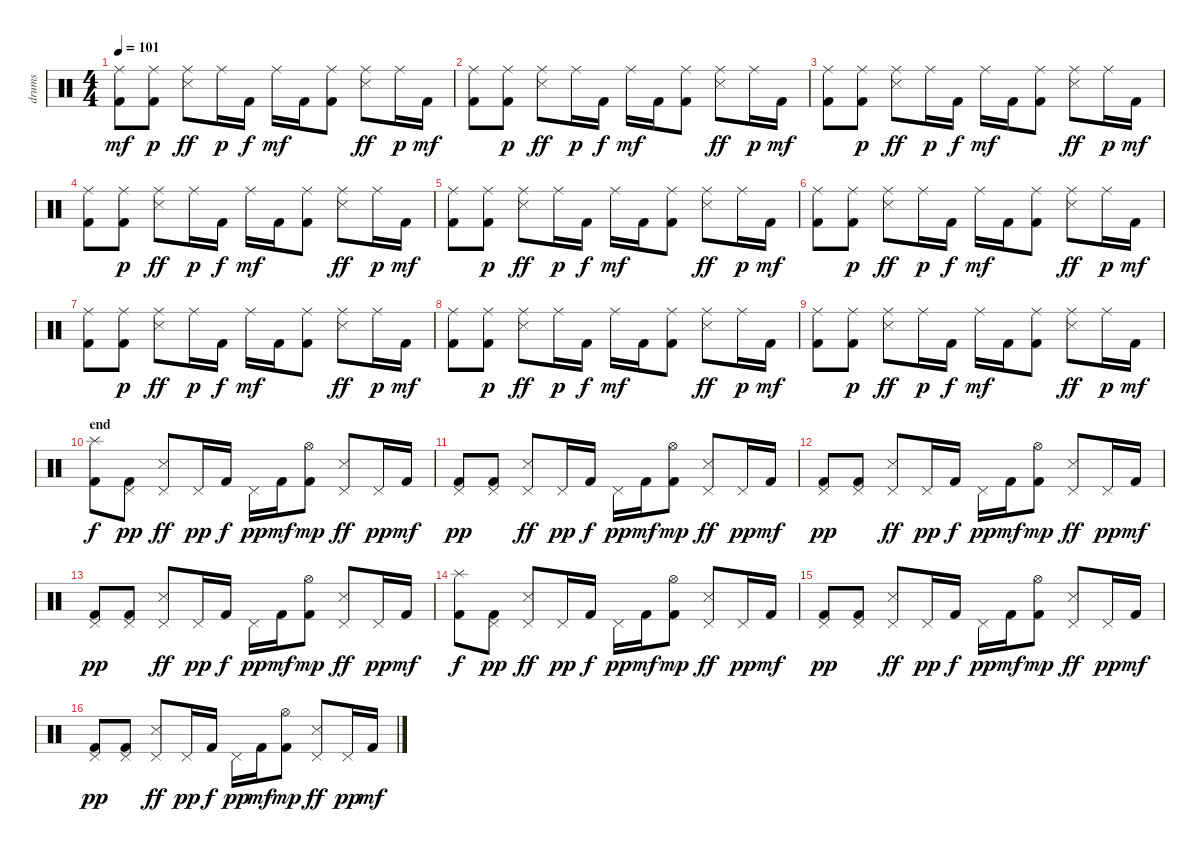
\track ("drums" "drums") {instrument percussion}
\staff {score}
\articulation defaults
\ts (4 4)
\tempo 101
\clef neutral
\ks c
("Ride (middle)" "Kick (hit) 2").8{dy mf} ("Ride (middle)" "Kick (hit) 2").8{dy p} ("Ride (middle)" "Snare (side stick) 3").8{dy ff} "Ride (middle)".16{dy p} "Kick (hit) 2".16{dy f} "Ride (middle)".16{dy mf} "Kick (hit) 2".16 ("Ride (middle)" "Kick (hit) 2").8 ("Ride (middle)" "Snare (side stick) 3").8{dy ff} "Ride (middle)".16{dy p} "Kick (hit) 2".16{dy mf} |
("Ride (middle)" "Kick (hit) 2").8 ("Ride (middle)" "Kick (hit) 2").8{dy p} ("Ride (middle)" "Snare (side stick) 3").8{dy ff} "Ride (middle)".16{dy p} "Kick (hit) 2".16{dy f} "Ride (middle)".16{dy mf} "Kick (hit) 2".16 ("Ride (middle)" "Kick (hit) 2").8 ("Ride (middle)" "Snare (side stick) 3").8{dy ff} "Ride (middle)".16{dy p} "Kick (hit) 2".16{dy mf} |
("Ride (middle)" "Kick (hit) 2").8 ("Ride (middle)" "Kick (hit) 2").8{dy p} ("Ride (middle)" "Snare (side stick) 3").8{dy ff} "Ride (middle)".16{dy p} "Kick (hit) 2".16{dy f} "Ride (middle)".16{dy mf} "Kick (hit) 2".16 ("Ride (middle)" "Kick (hit) 2").8 ("Ride (middle)" "Snare (side stick) 3").8{dy ff} "Ride (middle)".16{dy p} "Kick (hit) 2".16{dy mf} |
("Ride (middle)" "Kick (hit) 2").8 ("Ride (middle)" "Kick (hit) 2").8{dy p} ("Ride (middle)" "Snare (side stick) 3").8{dy ff} "Ride (middle)".16{dy p} "Kick (hit) 2".16{dy f} "Ride (middle)".16{dy mf} "Kick (hit) 2".16 ("Ride (middle)" "Kick (hit) 2").8 ("Ride (middle)" "Snare (side stick) 3").8{dy ff} "Ride (middle)".16{dy p} "Kick (hit) 2".16{dy mf} |
("Ride (middle)" "Kick (hit) 2").8 ("Ride (middle)" "Kick (hit) 2").8{dy p} ("Ride (middle)" "Snare (side stick) 3").8{dy ff} "Ride (middle)".16{dy p} "Kick (hit) 2".16{dy f} "Ride (middle)".16{dy mf} "Kick (hit) 2".16 ("Ride (middle)" "Kick (hit) 2").8 ("Ride (middle)" "Snare (side stick) 3").8{dy ff} "Ride (middle)".16{dy p} "Kick (hit) 2".16{dy mf} |
("Ride (middle)" "Kick (hit) 2").8 ("Ride (middle)" "Kick (hit) 2").8{dy p} ("Ride (middle)" "Snare (side stick) 3").8{dy ff} "Ride (middle)".16{dy p} "Kick (hit) 2".16{dy f} "Ride (middle)".16{dy mf} "Kick (hit) 2".16 ("Ride (middle)" "Kick (hit) 2").8 ("Ride (middle)" "Snare (side stick) 3").8{dy ff} "Ride (middle)".16{dy p} "Kick (hit) 2".16{dy mf} |
("Ride (middle)" "Kick (hit) 2").8 ("Ride (middle)" "Kick (hit) 2").8{dy p} ("Ride (middle)" "Snare (side stick) 3").8{dy ff} "Ride (middle)".16{dy p} "Kick (hit) 2".16{dy f} "Ride (middle)".16{dy mf} "Kick (hit) 2".16 ("Ride (middle)" "Kick (hit) 2").8 ("Ride (middle)" "Snare (side stick) 3").8{dy ff} "Ride (middle)".16{dy p} "Kick (hit) 2".16{dy mf} |
("Ride (middle)" "Kick (hit) 2").8 ("Ride (middle)" "Kick (hit) 2").8{dy p} ("Ride (middle)" "Snare (side stick) 3").8{dy ff} "Ride (middle)".16{dy p} "Kick (hit) 2".16{dy f} "Ride (middle)".16{dy mf} "Kick (hit) 2".16 ("Ride (middle)" "Kick (hit) 2").8 ("Ride (middle)" "Snare (side stick) 3").8{dy ff} "Ride (middle)".16{dy p} "Kick (hit) 2".16{dy mf} |
("Ride (middle)" "Kick (hit) 2").8 ("Ride (middle)" "Kick (hit) 2").8{dy p} ("Ride (middle)" "Snare (side stick) 3").8{dy ff} "Ride (middle)".16{dy p} "Kick (hit) 2".16{dy f} "Ride (middle)".16{dy mf} "Kick (hit) 2".16 ("Ride (middle)" "Kick (hit) 2").8 ("Ride (middle)" "Snare (side stick) 3").8{dy ff} "Ride (middle)".16{dy p} "Kick (hit) 2".16{dy mf} |
\section ("" "end")
("Splash (hit)" "Kick (hit) 2").8{dy f} ("Pedal Hi-Hat (hit)" "Kick (hit) 2").8{dy pp} ("Pedal Hi-Hat (hit)" "Snare (side stick) 3").8{dy ff} "Pedal Hi-Hat (hit)".16{dy pp} "Kick (hit) 2".16{dy f} "Pedal Hi-Hat (hit)".16{dy pp} "Kick (hit) 2".16{dy mf} ("Hi-Hat (open)" "Kick (hit) 2").8{dy mp} ("Pedal Hi-Hat (hit)" "Snare (side stick) 3").8{dy ff} "Pedal Hi-Hat (hit)".16{dy pp} "Kick (hit) 2".16{dy mf} |
("Pedal Hi-Hat (hit)" "Kick (hit) 2").8{dy pp} ("Pedal Hi-Hat (hit)" "Kick (hit) 2").8 ("Pedal Hi-Hat (hit)" "Snare (side stick) 3").8{dy ff} "Pedal Hi-Hat (hit)".16{dy pp} "Kick (hit) 2".16{dy f} "Pedal Hi-Hat (hit)".16{dy pp} "Kick (hit) 2".16{dy mf} ("Hi-Hat (open)" "Kick (hit) 2").8{dy mp} ("Pedal Hi-Hat (hit)" "Snare (side stick) 3").8{dy ff} "Pedal Hi-Hat (hit)".16{dy pp} "Kick (hit) 2".16{dy mf} |
("Pedal Hi-Hat (hit)" "Kick (hit) 2").8{dy pp} ("Pedal Hi-Hat (hit)" "Kick (hit) 2").8 ("Pedal Hi-Hat (hit)" "Snare (side stick) 3").8{dy ff} "Pedal Hi-Hat (hit)".16{dy pp} "Kick (hit) 2".16{dy f} "Pedal Hi-Hat (hit)".16{dy pp} "Kick (hit) 2".16{dy mf} ("Hi-Hat (open)" "Kick (hit) 2").8{dy mp} ("Pedal Hi-Hat (hit)" "Snare (side stick) 3").8{dy ff} "Pedal Hi-Hat (hit)".16{dy pp} "Kick (hit) 2".16{dy mf} |
("Pedal Hi-Hat (hit)" "Kick (hit) 2").8{dy pp} ("Pedal Hi-Hat (hit)" "Kick (hit) 2").8 ("Pedal Hi-Hat (hit)" "Snare (side stick) 3").8{dy ff} "Pedal Hi-Hat (hit)".16{dy pp} "Kick (hit) 2".16{dy f} "Pedal Hi-Hat (hit)".16{dy pp} "Kick (hit) 2".16{dy mf} ("Hi-Hat (open)" "Kick (hit) 2").8{dy mp} ("Pedal Hi-Hat (hit)" "Snare (side stick) 3").8{dy ff} "Pedal Hi-Hat (hit)".16{dy pp} "Kick (hit) 2".16{dy mf} |
("Splash (hit)" "Kick (hit) 2").8{dy f} ("Pedal Hi-Hat (hit)" "Kick (hit) 2").8{dy pp} ("Pedal Hi-Hat (hit)" "Snare (side stick) 3").8{dy ff} "Pedal Hi-Hat (hit)".16{dy pp} "Kick (hit) 2".16{dy f} "Pedal Hi-Hat (hit)".16{dy pp} "Kick (hit) 2".16{dy mf} ("Hi-Hat (open)" "Kick (hit) 2").8{dy mp} ("Pedal Hi-Hat (hit)" "Snare (side stick) 3").8{dy ff} "Pedal Hi-Hat (hit)".16{dy pp} "Kick (hit) 2".16{dy mf} |
("Pedal Hi-Hat (hit)" "Kick (hit) 2").8{dy pp} ("Pedal Hi-Hat (hit)" "Kick (hit) 2").8 ("Pedal Hi-Hat (hit)" "Snare (side stick) 3").8{dy ff} "Pedal Hi-Hat (hit)".16{dy pp} "Kick (hit) 2".16{dy f} "Pedal Hi-Hat (hit)".16{dy pp} "Kick (hit) 2".16{dy mf} ("Hi-Hat (open)" "Kick (hit) 2").8{dy mp} ("Pedal Hi-Hat (hit)" "Snare (side stick) 3").8{dy ff} "Pedal Hi-Hat (hit)".16{dy pp} "Kick (hit) 2".16{dy mf} |
("Pedal Hi-Hat (hit)" "Kick (hit) 2").8{dy pp} ("Pedal Hi-Hat (hit)" "Kick (hit) 2").8 ("Pedal Hi-Hat (hit)" "Snare (side stick) 3").8{dy ff} "Pedal Hi-Hat (hit)".16{dy pp} "Kick (hit) 2".16{dy f} "Pedal Hi-Hat (hit)".16{dy pp} "Kick (hit) 2".16{dy mf} ("Hi-Hat (open)" "Kick (hit) 2").8{dy mp} ("Pedal Hi-Hat (hit)" "Snare (side stick) 3").8{dy ff} "Pedal Hi-Hat (hit)".16{dy pp} "Kick (hit) 2".16{dy mf}
